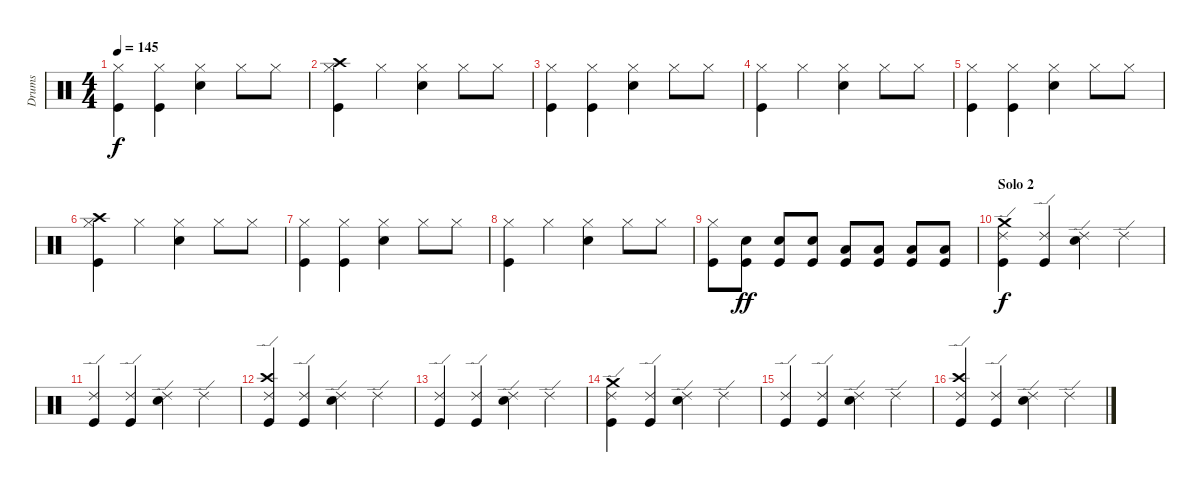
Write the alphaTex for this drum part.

\track ("Drums" "Drums") {instrument percussion}
\staff {score}
\articulation defaults
\ts (4 4)
\tempo 145
\clef neutral
\ks c
("Hi-Hat (closed)" "Kick (hit)").4{dy f} ("Hi-Hat (closed)" "Kick (hit)").4 ("Hi-Hat (closed)" "Electric Snare (hit)").4 "Hi-Hat (closed)".8 "Hi-Hat (closed)".8 |
("Hi-Hat (closed)" "Crash high (hit)" "Kick (hit)").4 "Hi-Hat (closed)".4 ("Hi-Hat (closed)" "Electric Snare (hit)").4 "Hi-Hat (closed)".8 "Hi-Hat (closed)".8 |
("Hi-Hat (closed)" "Kick (hit)").4 ("Hi-Hat (closed)" "Kick (hit)").4 ("Hi-Hat (closed)" "Electric Snare (hit)").4 "Hi-Hat (closed)".8 "Hi-Hat (closed)".8 |
("Hi-Hat (closed)" "Kick (hit)").4 "Hi-Hat (closed)".4 ("Hi-Hat (closed)" "Electric Snare (hit)").4 "Hi-Hat (closed)".8 "Hi-Hat (closed)".8 |
("Hi-Hat (closed)" "Kick (hit)").4 ("Hi-Hat (closed)" "Kick (hit)").4 ("Hi-Hat (closed)" "Electric Snare (hit)").4 "Hi-Hat (closed)".8 "Hi-Hat (closed)".8 |
("Hi-Hat (closed)" "Crash high (hit)" "Kick (hit)").4 "Hi-Hat (closed)".4 ("Hi-Hat (closed)" "Electric Snare (hit)").4 "Hi-Hat (closed)".8 "Hi-Hat (closed)".8 |
("Hi-Hat (closed)" "Kick (hit)").4 ("Hi-Hat (closed)" "Kick (hit)").4 ("Hi-Hat (closed)" "Electric Snare (hit)").4 "Hi-Hat (closed)".8 "Hi-Hat (closed)".8 |
("Hi-Hat (closed)" "Kick (hit)").4 "Hi-Hat (closed)".4 ("Hi-Hat (closed)" "Electric Snare (hit)").4 "Hi-Hat (closed)".8 "Hi-Hat (closed)".8 |
("Hi-Hat (closed)" "Kick (hit)").8 ("Electric Snare (hit)" "Kick (hit)").8{dy ff} ("Electric Snare (hit)" "Kick (hit)").8 ("Electric Snare (hit)" "Kick (hit)").8 ("Low Tom (hit)" "Kick (hit)").8 ("Low Tom (hit)" "Kick (hit)").8 ("Low Tom (hit)" "Kick (hit)").8 ("Low Tom (hit)" "Kick (hit)").8 |
\section ("" "Solo 2")
("Ride (edge) 2" "Crash medium (hit)" "Kick (hit)").4{dy f} ("Ride (edge) 2" "Kick (hit)").4 ("Ride (edge) 2" "Electric Snare (hit)").4 "Ride (edge) 2".4 |
("Ride (edge) 2" "Kick (hit)").4 ("Ride (edge) 2" "Kick (hit)").4 ("Ride (edge) 2" "Electric Snare (hit)").4 "Ride (edge) 2".4 |
("Ride (edge) 2" "Crash high (hit)" "Kick (hit)").4 ("Ride (edge) 2" "Kick (hit)").4 ("Ride (edge) 2" "Electric Snare (hit)").4 "Ride (edge) 2".4 |
("Ride (edge) 2" "Kick (hit)").4 ("Ride (edge) 2" "Kick (hit)").4 ("Ride (edge) 2" "Electric Snare (hit)").4 "Ride (edge) 2".4 |
("Ride (edge) 2" "Crash medium (hit)" "Kick (hit)").4 ("Ride (edge) 2" "Kick (hit)").4 ("Ride (edge) 2" "Electric Snare (hit)").4 "Ride (edge) 2".4 |
("Ride (edge) 2" "Kick (hit)").4 ("Ride (edge) 2" "Kick (hit)").4 ("Ride (edge) 2" "Electric Snare (hit)").4 "Ride (edge) 2".4 |
("Ride (edge) 2" "Crash high (hit)" "Kick (hit)").4 ("Ride (edge) 2" "Kick (hit)").4 ("Ride (edge) 2" "Electric Snare (hit)").4 "Ride (edge) 2".4
